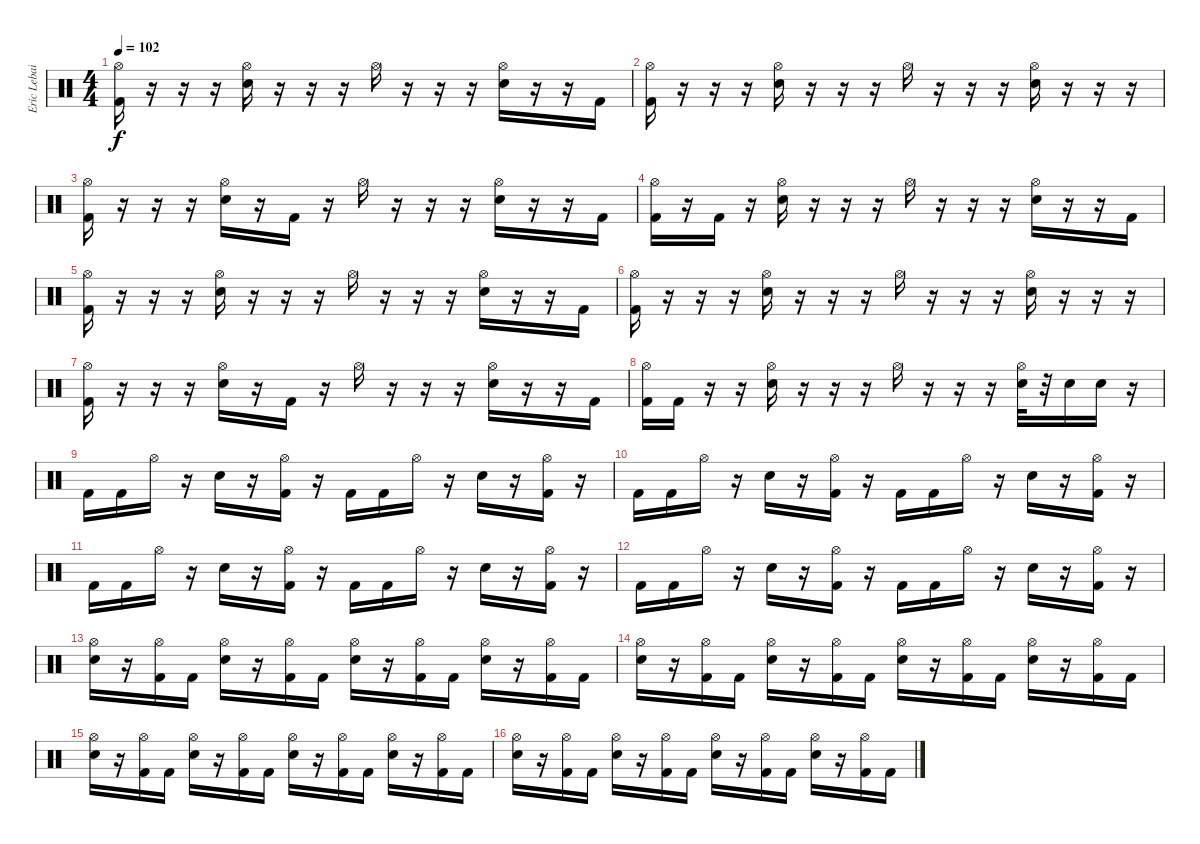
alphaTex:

\track ("Eric Lebailly" "Eric Lebai") {instrument percussion}
\staff {score}
\articulation defaults
\ts (4 4)
\tempo 102
\clef neutral
\ks c
("Hi-Hat (open)" "Kick (hit) 2").16{dy f} r.16 r.16 r.16 ("Hi-Hat (open)" "Snare (hit) 2").16 r.16 r.16 r.16 "Hi-Hat (open)".16 r.16 r.16 r.16 ("Hi-Hat (open)" "Snare (hit) 2").16 r.16 r.16 "Kick (hit) 2".16 |
("Hi-Hat (open)" "Kick (hit) 2").16 r.16 r.16 r.16 ("Hi-Hat (open)" "Snare (hit) 2").16 r.16 r.16 r.16 "Hi-Hat (open)".16 r.16 r.16 r.16 ("Hi-Hat (open)" "Snare (hit) 2").16 r.16 r.16 r.16 |
("Hi-Hat (open)" "Kick (hit) 2").16 r.16 r.16 r.16 ("Hi-Hat (open)" "Snare (hit) 2").16 r.16 "Kick (hit) 2".16 r.16 "Hi-Hat (open)".16 r.16 r.16 r.16 ("Hi-Hat (open)" "Snare (hit) 2").16 r.16 r.16 "Kick (hit) 2".16 |
("Hi-Hat (open)" "Kick (hit) 2").16 r.16 "Kick (hit) 2".16 r.16 ("Hi-Hat (open)" "Snare (hit) 2").16 r.16 r.16 r.16 "Hi-Hat (open)".16 r.16 r.16 r.16 ("Hi-Hat (open)" "Snare (hit) 2").16 r.16 r.16 "Kick (hit) 2".16 |
("Hi-Hat (open)" "Kick (hit) 2").16 r.16 r.16 r.16 ("Hi-Hat (open)" "Snare (hit) 2").16 r.16 r.16 r.16 "Hi-Hat (open)".16 r.16 r.16 r.16 ("Hi-Hat (open)" "Snare (hit) 2").16 r.16 r.16 "Kick (hit) 2".16 |
("Hi-Hat (open)" "Kick (hit) 2").16 r.16 r.16 r.16 ("Hi-Hat (open)" "Snare (hit) 2").16 r.16 r.16 r.16 "Hi-Hat (open)".16 r.16 r.16 r.16 ("Hi-Hat (open)" "Snare (hit) 2").16 r.16 r.16 r.16 |
("Hi-Hat (open)" "Kick (hit) 2").16 r.16 r.16 r.16 ("Hi-Hat (open)" "Snare (hit) 2").16 r.16 "Kick (hit) 2".16 r.16 "Hi-Hat (open)".16 r.16 r.16 r.16 ("Hi-Hat (open)" "Snare (hit) 2").16 r.16 r.16 "Kick (hit) 2".16 |
("Hi-Hat (open)" "Kick (hit) 2").16 "Kick (hit) 2".16 r.16 r.16 ("Hi-Hat (open)" "Snare (hit) 2").16 r.16 r.16 r.16 "Hi-Hat (open)".16 r.16 r.16 r.16 ("Hi-Hat (open)" "Snare (hit) 2").32 r.32 "Snare (hit) 2".16 "Snare (hit) 2".16 r.16 |
"Kick (hit) 2".16 "Kick (hit) 2".16 "Hi-Hat (open)".16 r.16 "Snare (hit) 2".16 r.16 ("Hi-Hat (open)" "Kick (hit) 2").16 r.16 "Kick (hit) 2".16 "Kick (hit) 2".16 "Hi-Hat (open)".16 r.16 "Snare (hit) 2".16 r.16 ("Hi-Hat (open)" "Kick (hit) 2").16 r.16 |
"Kick (hit) 2".16 "Kick (hit) 2".16 "Hi-Hat (open)".16 r.16 "Snare (hit) 2".16 r.16 ("Hi-Hat (open)" "Kick (hit) 2").16 r.16 "Kick (hit) 2".16 "Kick (hit) 2".16 "Hi-Hat (open)".16 r.16 "Snare (hit) 2".16 r.16 ("Hi-Hat (open)" "Kick (hit) 2").16 r.16 |
"Kick (hit) 2".16 "Kick (hit) 2".16 "Hi-Hat (open)".16 r.16 "Snare (hit) 2".16 r.16 ("Hi-Hat (open)" "Kick (hit) 2").16 r.16 "Kick (hit) 2".16 "Kick (hit) 2".16 "Hi-Hat (open)".16 r.16 "Snare (hit) 2".16 r.16 ("Hi-Hat (open)" "Kick (hit) 2").16 r.16 |
"Kick (hit) 2".16 "Kick (hit) 2".16 "Hi-Hat (open)".16 r.16 "Snare (hit) 2".16 r.16 ("Hi-Hat (open)" "Kick (hit) 2").16 r.16 "Kick (hit) 2".16 "Kick (hit) 2".16 "Hi-Hat (open)".16 r.16 "Snare (hit) 2".16 r.16 ("Hi-Hat (open)" "Kick (hit) 2").16 r.16 |
("Hi-Hat (open)" "Snare (hit) 2").16 r.16 ("Hi-Hat (open)" "Kick (hit) 2").16 "Kick (hit) 2".16 ("Hi-Hat (open)" "Snare (hit) 2").16 r.16 ("Hi-Hat (open)" "Kick (hit) 2").16 "Kick (hit) 2".16 ("Hi-Hat (open)" "Snare (hit) 2").16 r.16 ("Hi-Hat (open)" "Kick (hit) 2").16 "Kick (hit) 2".16 ("Hi-Hat (open)" "Snare (hit) 2").16 r.16 ("Hi-Hat (open)" "Kick (hit) 2").16 "Kick (hit) 2".16 |
("Hi-Hat (open)" "Snare (hit) 2").16 r.16 ("Hi-Hat (open)" "Kick (hit) 2").16 "Kick (hit) 2".16 ("Hi-Hat (open)" "Snare (hit) 2").16 r.16 ("Hi-Hat (open)" "Kick (hit) 2").16 "Kick (hit) 2".16 ("Hi-Hat (open)" "Snare (hit) 2").16 r.16 ("Hi-Hat (open)" "Kick (hit) 2").16 "Kick (hit) 2".16 ("Hi-Hat (open)" "Snare (hit) 2").16 r.16 ("Hi-Hat (open)" "Kick (hit) 2").16 "Kick (hit) 2".16 |
("Hi-Hat (open)" "Snare (hit) 2").16 r.16 ("Hi-Hat (open)" "Kick (hit) 2").16 "Kick (hit) 2".16 ("Hi-Hat (open)" "Snare (hit) 2").16 r.16 ("Hi-Hat (open)" "Kick (hit) 2").16 "Kick (hit) 2".16 ("Hi-Hat (open)" "Snare (hit) 2").16 r.16 ("Hi-Hat (open)" "Kick (hit) 2").16 "Kick (hit) 2".16 ("Hi-Hat (open)" "Snare (hit) 2").16 r.16 ("Hi-Hat (open)" "Kick (hit) 2").16 "Kick (hit) 2".16 |
("Hi-Hat (open)" "Snare (hit) 2").16 r.16 ("Hi-Hat (open)" "Kick (hit) 2").16 "Kick (hit) 2".16 ("Hi-Hat (open)" "Snare (hit) 2").16 r.16 ("Hi-Hat (open)" "Kick (hit) 2").16 "Kick (hit) 2".16 ("Hi-Hat (open)" "Snare (hit) 2").16 r.16 ("Hi-Hat (open)" "Kick (hit) 2").16 "Kick (hit) 2".16 ("Hi-Hat (open)" "Snare (hit) 2").16 r.16 ("Hi-Hat (open)" "Kick (hit) 2").16 "Kick (hit) 2".16
